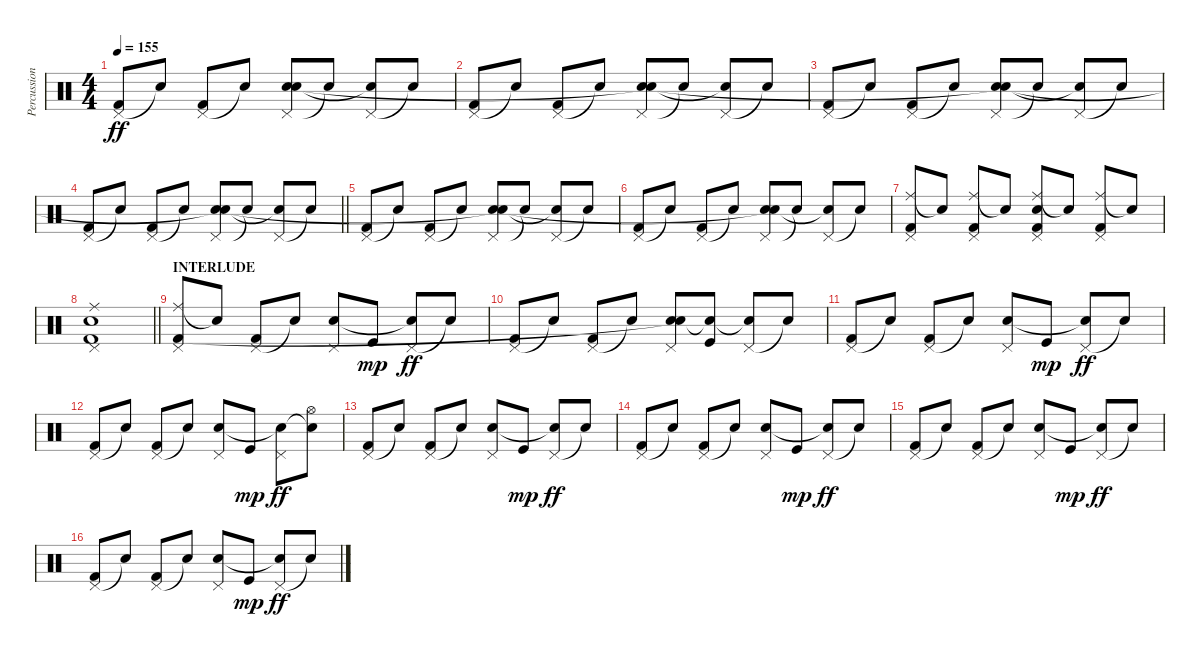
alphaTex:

\track ("Percussion" "Percussion") {instrument percussion}
\staff {score}
\articulation defaults
\ts (4 4)
\tempo 155
\clef neutral
\ks c
("Pedal Hi-Hat (hit)" "Kick (hit) 2").8{dy ff} "Snare (hit)"{t}.8 ("Pedal Hi-Hat (hit)" "Kick (hit) 2").8 "Snare (hit)"{t}.8 ("Pedal Hi-Hat (hit)" "Snare (hit) 2" "Snare (hit)"{t}).8 "Snare (hit)"{t}.8 ("Pedal Hi-Hat (hit)" "Snare (hit)"{t}).8 "Snare (hit)"{t}.8 |
("Pedal Hi-Hat (hit)" "Kick (hit) 2").8 "Snare (hit)"{t}.8 ("Pedal Hi-Hat (hit)" "Kick (hit) 2").8 "Snare (hit)"{t}.8 ("Pedal Hi-Hat (hit)" "Snare (hit) 2" "Snare (hit)"{t}).8 "Snare (hit)"{t}.8 ("Pedal Hi-Hat (hit)" "Snare (hit)"{t}).8 "Snare (hit)"{t}.8 |
("Pedal Hi-Hat (hit)" "Kick (hit) 2").8 "Snare (hit)"{t}.8 ("Pedal Hi-Hat (hit)" "Kick (hit) 2").8 "Snare (hit)"{t}.8 ("Pedal Hi-Hat (hit)" "Snare (hit) 2" "Snare (hit)"{t}).8 "Snare (hit)"{t}.8 ("Pedal Hi-Hat (hit)" "Snare (hit)"{t}).8 "Snare (hit)"{t}.8 |
\barLineRight lightlight
("Pedal Hi-Hat (hit)" "Kick (hit) 2").8 "Snare (hit)"{t}.8 ("Pedal Hi-Hat (hit)" "Kick (hit) 2").8 "Snare (hit)"{t}.8 ("Pedal Hi-Hat (hit)" "Snare (hit) 2" "Snare (hit)"{t}).8 "Snare (hit)"{t}.8 ("Pedal Hi-Hat (hit)" "Snare (hit)"{t}).8 "Snare (hit)"{t}.8 |
("Pedal Hi-Hat (hit)" "Kick (hit) 2").8 "Snare (hit)"{t}.8 ("Pedal Hi-Hat (hit)" "Kick (hit) 2").8 "Snare (hit)"{t}.8 ("Pedal Hi-Hat (hit)" "Snare (hit) 2" "Snare (hit)"{t}).8 "Snare (hit)"{t}.8 ("Pedal Hi-Hat (hit)" "Snare (hit)"{t}).8 "Snare (hit)"{t}.8 |
("Pedal Hi-Hat (hit)" "Kick (hit) 2").8 "Snare (hit)"{t}.8 ("Pedal Hi-Hat (hit)" "Kick (hit) 2").8 "Snare (hit)"{t}.8 ("Pedal Hi-Hat (hit)" "Snare (hit) 2" "Snare (hit)"{t}).8 "Snare (hit)"{t}.8 ("Pedal Hi-Hat (hit)" "Snare (hit)"{t}).8 "Snare (hit)"{t}.8 |
("Ride (middle)" "Pedal Hi-Hat (hit)" "Kick (hit) 2").8 "Snare (hit)"{t}.8 ("Ride (middle)" "Pedal Hi-Hat (hit)" "Kick (hit) 2").8 "Snare (hit)"{t}.8 ("Ride (middle)" "Pedal Hi-Hat (hit)" "Snare (hit) 2" "Kick (hit) 2").8 "Snare (hit)"{t}.8 ("Ride (middle)" "Pedal Hi-Hat (hit)" "Kick (hit) 2").8 "Snare (hit)"{t}.8 |
\barLineRight lightlight
("Ride (middle)" "Pedal Hi-Hat (hit)" "Snare (hit) 2" "Kick (hit) 2").1 |
\section ("" "INTERLUDE")
("Ride (middle)" "Pedal Hi-Hat (hit)" "Kick (hit) 2").8 "Snare (hit)"{t}.8 ("Pedal Hi-Hat (hit)" "Kick (hit) 2").8 "Snare (hit)"{t}.8 ("Pedal Hi-Hat (hit)" "Snare (hit) 2").8 "Kick (hit)".8{dy mp} ("Pedal Hi-Hat (hit)" "Snare (hit)"{t}).8{dy ff} "Snare (hit)"{t}.8 |
("Pedal Hi-Hat (hit)" "Kick (hit) 2").8 "Snare (hit)"{t}.8 ("Pedal Hi-Hat (hit)" "Kick (hit) 2").8 "Snare (hit)"{t}.8 ("Pedal Hi-Hat (hit)" "Snare (hit) 2" "Snare (hit)"{t}).8 ("Kick (hit)" "Snare (hit)"{t}).8 ("Pedal Hi-Hat (hit)" "Snare (hit)"{t}).8 "Snare (hit)"{t}.8 |
("Pedal Hi-Hat (hit)" "Kick (hit) 2").8 "Snare (hit)"{t}.8 ("Pedal Hi-Hat (hit)" "Kick (hit) 2").8 "Snare (hit)"{t}.8 ("Pedal Hi-Hat (hit)" "Snare (hit) 2").8 "Kick (hit)".8{dy mp} ("Pedal Hi-Hat (hit)" "Snare (hit)"{t}).8{dy ff} "Snare (hit)"{t}.8 |
("Pedal Hi-Hat (hit)" "Kick (hit) 2").8 "Snare (hit)"{t}.8 ("Pedal Hi-Hat (hit)" "Kick (hit) 2").8 "Snare (hit)"{t}.8 ("Pedal Hi-Hat (hit)" "Snare (hit) 2").8 "Kick (hit)".8{dy mp} ("Pedal Hi-Hat (hit)" "Snare (hit)"{t}).8{dy ff} ("Hi-Hat (open)" "Snare (hit)"{t}).8 |
("Pedal Hi-Hat (hit)" "Kick (hit) 2").8 "Snare (hit)"{t}.8 ("Pedal Hi-Hat (hit)" "Kick (hit) 2").8 "Snare (hit)"{t}.8 ("Pedal Hi-Hat (hit)" "Snare (hit) 2").8 "Kick (hit)".8{dy mp} ("Pedal Hi-Hat (hit)" "Snare (hit)"{t}).8{dy ff} "Snare (hit)"{t}.8 |
("Pedal Hi-Hat (hit)" "Kick (hit) 2").8 "Snare (hit)"{t}.8 ("Pedal Hi-Hat (hit)" "Kick (hit) 2").8 "Snare (hit)"{t}.8 ("Pedal Hi-Hat (hit)" "Snare (hit) 2").8 "Kick (hit)".8{dy mp} ("Pedal Hi-Hat (hit)" "Snare (hit)"{t}).8{dy ff} "Snare (hit)"{t}.8 |
("Pedal Hi-Hat (hit)" "Kick (hit) 2").8 "Snare (hit)"{t}.8 ("Pedal Hi-Hat (hit)" "Kick (hit) 2").8 "Snare (hit)"{t}.8 ("Pedal Hi-Hat (hit)" "Snare (hit) 2").8 "Kick (hit)".8{dy mp} ("Pedal Hi-Hat (hit)" "Snare (hit)"{t}).8{dy ff} "Snare (hit)"{t}.8 |
("Pedal Hi-Hat (hit)" "Kick (hit) 2").8 "Snare (hit)"{t}.8 ("Pedal Hi-Hat (hit)" "Kick (hit) 2").8 "Snare (hit)"{t}.8 ("Pedal Hi-Hat (hit)" "Snare (hit) 2").8 "Kick (hit)".8{dy mp} ("Pedal Hi-Hat (hit)" "Snare (hit)"{t}).8{dy ff} "Snare (hit)"{t}.8
